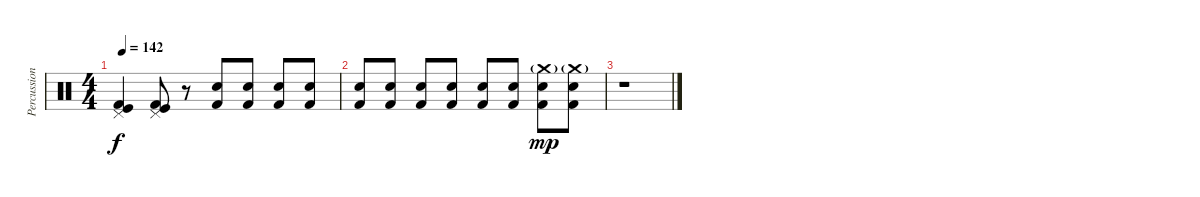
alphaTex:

\track ("Percussion" "Percussion") {instrument percussion}
\staff {score}
\articulation defaults
\ts (4 4)
\tempo 142
\clef neutral
\ks c
("Pedal Hi-Hat (hit)" "Kick (hit)" "Kick (hit) 2").4{dy f} ("Pedal Hi-Hat (hit)" "Kick (hit)" "Kick (hit) 2").8 r.8{volume 3} ("Electric Snare (hit)" "Kick (hit) 2").8{volume 16} ("Electric Snare (hit)" "Kick (hit) 2").8 ("Electric Snare (hit)" "Kick (hit) 2").8 ("Electric Snare (hit)" "Kick (hit) 2").8 |
("Electric Snare (hit)" "Kick (hit) 2").8 ("Electric Snare (hit)" "Kick (hit) 2").8 ("Electric Snare (hit)" "Kick (hit) 2").8 ("Electric Snare (hit)" "Kick (hit) 2").8 ("Electric Snare (hit)" "Kick (hit) 2").8 ("Electric Snare (hit)" "Kick (hit) 2").8 ("Crash medium (hit)"{g} "Electric Snare (hit)" "Kick (hit) 2").8{dy mp} ("Crash medium (hit)"{g} "Electric Snare (hit)" "Kick (hit) 2").8 |
r.1
